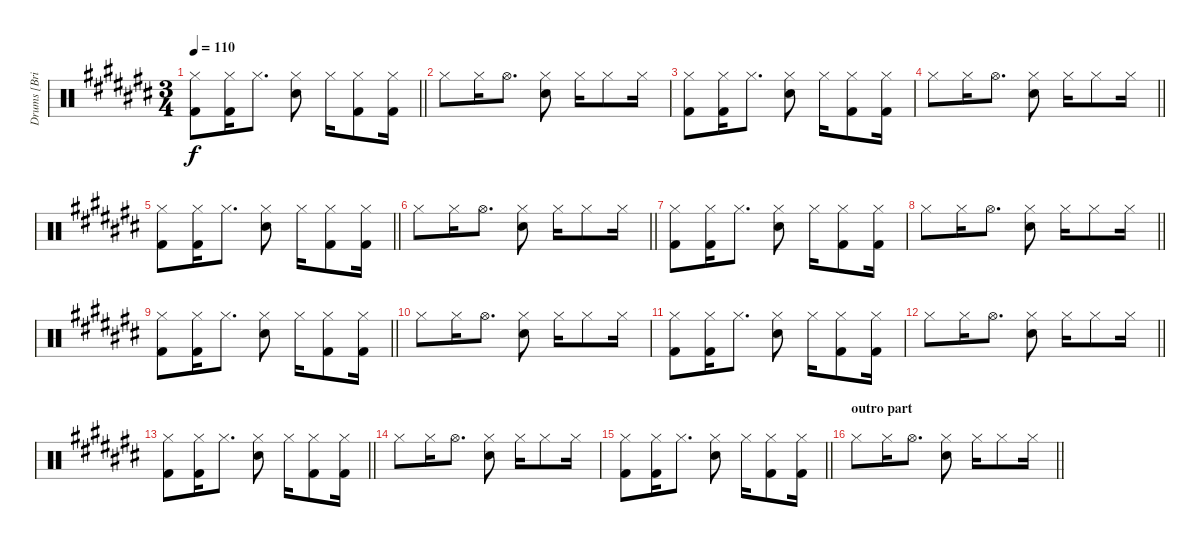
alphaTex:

\track ("Drums [Brian \"Brain\" Mantia]" "Drums [Bri") {instrument percussion}
\staff {score}
\articulation defaults
\ts (3 4)
\tempo 110
\clef neutral
\barLineRight lightlight
\ks c#
("Hi-Hat (closed)" "Kick (hit) 2").8{dy f} ("Hi-Hat (closed)" "Kick (hit) 2").16 "Hi-Hat (closed)".8{d} ("Hi-Hat (closed)" "Electric Snare (hit)").8 "Hi-Hat (closed)".16 ("Hi-Hat (closed)" "Kick (hit) 2").8 ("Hi-Hat (closed)" "Kick (hit) 2").16 |
"Hi-Hat (closed)".8 "Hi-Hat (closed)".16 "Hi-Hat (open)".8{d} ("Hi-Hat (closed)" "Electric Snare (hit)").8 "Hi-Hat (closed)".16 "Hi-Hat (closed)".8 "Hi-Hat (closed)".16 |
("Hi-Hat (closed)" "Kick (hit) 2").8 ("Hi-Hat (closed)" "Kick (hit) 2").16 "Hi-Hat (closed)".8{d} ("Hi-Hat (closed)" "Electric Snare (hit)").8 "Hi-Hat (closed)".16 ("Hi-Hat (closed)" "Kick (hit) 2").8 ("Hi-Hat (closed)" "Kick (hit) 2").16 |
\barLineRight lightlight "Hi-Hat (closed)".8 "Hi-Hat (closed)".16 "Hi-Hat (open)".8{d}
("Hi-Hat (closed)" "Electric Snare (hit)").8 "Hi-Hat (closed)".16 "Hi-Hat (closed)".8 "Hi-Hat (closed)".16 |
\barLineRight lightlight
("Hi-Hat (closed)" "Kick (hit) 2").8 ("Hi-Hat (closed)" "Kick (hit) 2").16 "Hi-Hat (closed)".8{d} ("Hi-Hat (closed)" "Electric Snare (hit)").8 "Hi-Hat (closed)".16 ("Hi-Hat (closed)" "Kick (hit) 2").8 ("Hi-Hat (closed)" "Kick (hit) 2").16 |
\barLineRight lightlight "Hi-Hat (closed)".8 "Hi-Hat (closed)".16 "Hi-Hat (open)".8{d}
("Hi-Hat (closed)" "Electric Snare (hit)").8 "Hi-Hat (closed)".16 "Hi-Hat (closed)".8 "Hi-Hat (closed)".16 |
\section ("" "")
("Hi-Hat (closed)" "Kick (hit) 2").8 ("Hi-Hat (closed)" "Kick (hit) 2").16 "Hi-Hat (closed)".8{d} ("Hi-Hat (closed)" "Electric Snare (hit)").8 "Hi-Hat (closed)".16 ("Hi-Hat (closed)" "Kick (hit) 2").8 ("Hi-Hat (closed)" "Kick (hit) 2").16 |
\barLineRight lightlight "Hi-Hat (closed)".8 "Hi-Hat (closed)".16 "Hi-Hat (open)".8{d}
("Hi-Hat (closed)" "Electric Snare (hit)").8 "Hi-Hat (closed)".16 "Hi-Hat (closed)".8 "Hi-Hat (closed)".16 |
\barLineRight lightlight
("Hi-Hat (closed)" "Kick (hit) 2").8 ("Hi-Hat (closed)" "Kick (hit) 2").16 "Hi-Hat (closed)".8{d} ("Hi-Hat (closed)" "Electric Snare (hit)").8 "Hi-Hat (closed)".16 ("Hi-Hat (closed)" "Kick (hit) 2").8 ("Hi-Hat (closed)" "Kick (hit) 2").16 |
"Hi-Hat (closed)".8 "Hi-Hat (closed)".16 "Hi-Hat (open)".8{d} ("Hi-Hat (closed)" "Electric Snare (hit)").8 "Hi-Hat (closed)".16 "Hi-Hat (closed)".8 "Hi-Hat (closed)".16 |
("Hi-Hat (closed)" "Kick (hit) 2").8 ("Hi-Hat (closed)" "Kick (hit) 2").16 "Hi-Hat (closed)".8{d} ("Hi-Hat (closed)" "Electric Snare (hit)").8 "Hi-Hat (closed)".16 ("Hi-Hat (closed)" "Kick (hit) 2").8 ("Hi-Hat (closed)" "Kick (hit) 2").16 |
\barLineRight lightlight "Hi-Hat (closed)".8 "Hi-Hat (closed)".16 "Hi-Hat (open)".8{d}
("Hi-Hat (closed)" "Electric Snare (hit)").8 "Hi-Hat (closed)".16 "Hi-Hat (closed)".8 "Hi-Hat (closed)".16 |
\barLineRight lightlight
("Hi-Hat (closed)" "Kick (hit) 2").8 ("Hi-Hat (closed)" "Kick (hit) 2").16 "Hi-Hat (closed)".8{d} ("Hi-Hat (closed)" "Electric Snare (hit)").8 "Hi-Hat (closed)".16 ("Hi-Hat (closed)" "Kick (hit) 2").8 ("Hi-Hat (closed)" "Kick (hit) 2").16 |
"Hi-Hat (closed)".8 "Hi-Hat (closed)".16 "Hi-Hat (open)".8{d} ("Hi-Hat (closed)" "Electric Snare (hit)").8 "Hi-Hat (closed)".16 "Hi-Hat (closed)".8 "Hi-Hat (closed)".16 |
\barLineRight lightlight
("Hi-Hat (closed)" "Kick (hit) 2").8 ("Hi-Hat (closed)" "Kick (hit) 2").16 "Hi-Hat (closed)".8{d} ("Hi-Hat (closed)" "Electric Snare (hit)").8 "Hi-Hat (closed)".16 ("Hi-Hat (closed)" "Kick (hit) 2").8 ("Hi-Hat (closed)" "Kick (hit) 2").16 |
\section ("" "outro part")
\barLineRight lightlight "Hi-Hat (closed)".8 "Hi-Hat (closed)".16 "Hi-Hat (open)".8{d}
("Hi-Hat (closed)" "Electric Snare (hit)").8 "Hi-Hat (closed)".16 "Hi-Hat (closed)".8 "Hi-Hat (closed)".16
